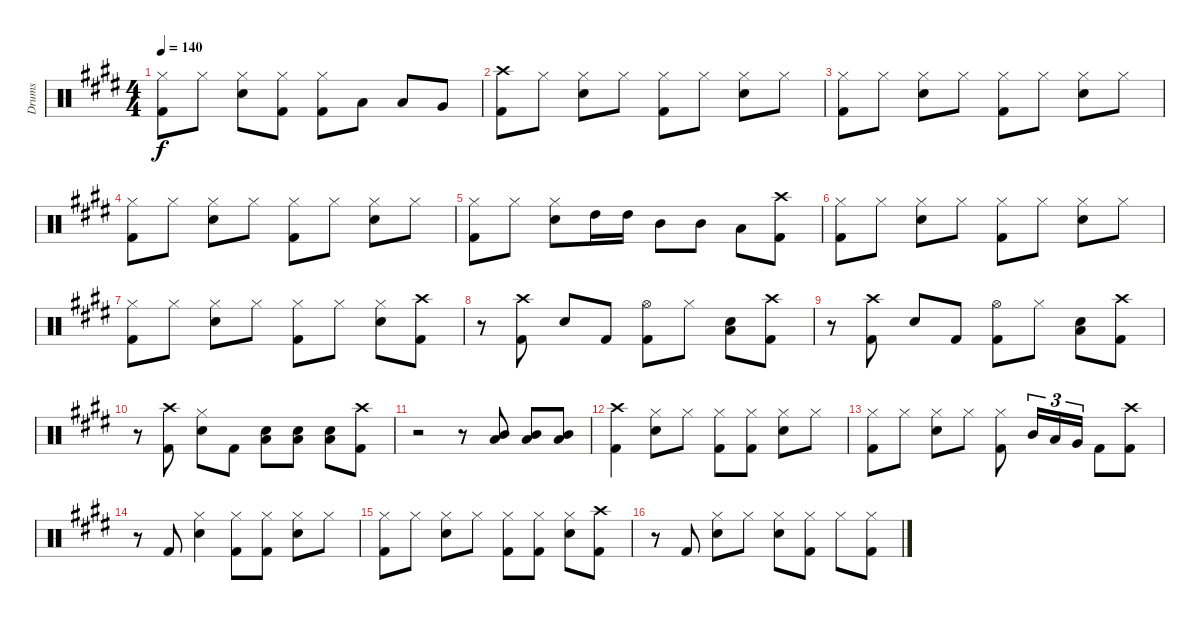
\track ("Drums" "Drums") {instrument percussion}
\staff {score}
\articulation defaults
\ts (4 4)
\tempo 140
\clef neutral
\ks e
("Hi-Hat (closed)" "Kick (hit) 2").8{dy f} "Hi-Hat (closed)".8 ("Hi-Hat (closed)" "Electric Snare (hit)").8 ("Hi-Hat (closed)" "Kick (hit) 2").8 ("Hi-Hat (closed)" "Kick (hit) 2").8 "Low Tom (hit)".8 "Low Tom (hit)".8 "Very Low Tom (hit)".8 |
("Crash high (hit)" "Kick (hit) 2").8 "Hi-Hat (closed)".8 ("Hi-Hat (closed)" "Electric Snare (hit)").8 "Hi-Hat (closed)".8 ("Hi-Hat (closed)" "Kick (hit) 2").8 "Hi-Hat (closed)".8 ("Hi-Hat (closed)" "Electric Snare (hit)").8 "Hi-Hat (closed)".8 |
("Hi-Hat (closed)" "Kick (hit) 2").8 "Hi-Hat (closed)".8 ("Hi-Hat (closed)" "Electric Snare (hit)").8 "Hi-Hat (closed)".8 ("Hi-Hat (closed)" "Kick (hit) 2").8 "Hi-Hat (closed)".8 ("Hi-Hat (closed)" "Electric Snare (hit)").8 "Hi-Hat (closed)".8 |
("Hi-Hat (closed)" "Kick (hit) 2").8 "Hi-Hat (closed)".8 ("Hi-Hat (closed)" "Electric Snare (hit)").8 "Hi-Hat (closed)".8 ("Hi-Hat (closed)" "Kick (hit) 2").8 "Hi-Hat (closed)".8 ("Hi-Hat (closed)" "Electric Snare (hit)").8 "Hi-Hat (closed)".8 |
("Hi-Hat (closed)" "Kick (hit) 2").8 "Hi-Hat (closed)".8 ("Hi-Hat (closed)" "Electric Snare (hit)").8 "High Tom (hit)".16 "High Tom (hit)".16 "Mid Tom (hit)".8 "Mid Tom (hit)".8 "Low Tom (hit)".8 ("Crash high (hit)" "Kick (hit) 2").8 |
("Hi-Hat (closed)" "Kick (hit) 2").8 "Hi-Hat (closed)".8 ("Hi-Hat (closed)" "Electric Snare (hit)").8 "Hi-Hat (closed)".8 ("Hi-Hat (closed)" "Kick (hit) 2").8 "Hi-Hat (closed)".8 ("Hi-Hat (closed)" "Electric Snare (hit)").8 "Hi-Hat (closed)".8 |
("Hi-Hat (closed)" "Kick (hit) 2").8 "Hi-Hat (closed)".8 ("Hi-Hat (closed)" "Electric Snare (hit)").8 "Hi-Hat (closed)".8 ("Hi-Hat (closed)" "Kick (hit) 2").8 "Hi-Hat (closed)".8 ("Hi-Hat (closed)" "Electric Snare (hit)").8 ("Crash high (hit)" "Kick (hit) 2").8 |
r.8 ("Crash high (hit)" "Kick (hit) 2").8 "Electric Snare (hit)".8 "Kick (hit) 2".8 ("Hi-Hat (open)" "Kick (hit) 2").8 "Hi-Hat (closed)".8 ("Electric Snare (hit)" "Low Tom (hit)").8 ("Crash high (hit)" "Kick (hit) 2").8 |
r.8 ("Crash high (hit)" "Kick (hit) 2").8 "Electric Snare (hit)".8 "Kick (hit) 2".8 ("Hi-Hat (open)" "Kick (hit) 2").8 "Hi-Hat (closed)".8 ("Electric Snare (hit)" "Low Tom (hit)").8 ("Crash high (hit)" "Kick (hit) 2").8 |
r.8 ("Crash high (hit)" "Kick (hit) 2").8 ("Hi-Hat (closed)" "Electric Snare (hit)").8 "Kick (hit) 2".8 ("Electric Snare (hit)" "Low Tom (hit)").8 ("Electric Snare (hit)" "Low Tom (hit)").8 ("Electric Snare (hit)" "Low Tom (hit)").8 ("Crash high (hit)" "Kick (hit) 2").8 |
r.2 r.8 ("Mid Tom (hit)" "Low Tom (hit)").8 ("Mid Tom (hit)" "Low Tom (hit)").8 ("Mid Tom (hit)" "Low Tom (hit)").8 |
("Crash high (hit)" "Kick (hit) 2").4 ("Hi-Hat (closed)" "Electric Snare (hit)").8 "Hi-Hat (closed)".8 ("Hi-Hat (closed)" "Kick (hit) 2").8 ("Hi-Hat (closed)" "Kick (hit) 2").8 ("Hi-Hat (closed)" "Electric Snare (hit)").8 "Hi-Hat (closed)".8 |
("Hi-Hat (closed)" "Kick (hit) 2").8 "Hi-Hat (closed)".8 ("Hi-Hat (closed)" "Electric Snare (hit)").8 "Hi-Hat (closed)".8 ("Hi-Hat (closed)" "Kick (hit) 2").8 "Mid Tom (hit)".16{tu (3 2)} "Low Tom (hit)".16{tu (3 2)} "Very Low Tom (hit)".16{tu (3 2)} "Kick (hit) 2".8 ("Crash high (hit)" "Kick (hit) 2").8 |
r.8 "Kick (hit) 2".8 ("Hi-Hat (closed)" "Electric Snare (hit)").4 ("Hi-Hat (closed)" "Kick (hit) 2").8 ("Hi-Hat (closed)" "Kick (hit) 2").8 ("Hi-Hat (closed)" "Electric Snare (hit)").8 "Hi-Hat (closed)".8 |
("Hi-Hat (closed)" "Kick (hit) 2").8 "Hi-Hat (closed)".8 ("Hi-Hat (closed)" "Electric Snare (hit)").8 "Hi-Hat (closed)".8 ("Hi-Hat (closed)" "Kick (hit) 2").8 ("Hi-Hat (closed)" "Kick (hit) 2").8 ("Hi-Hat (closed)" "Electric Snare (hit)").8 ("Crash high (hit)" "Kick (hit) 2").8 |
r.8 "Kick (hit) 2".8 ("Hi-Hat (closed)" "Electric Snare (hit)").8 "Hi-Hat (closed)".8 ("Hi-Hat (closed)" "Electric Snare (hit)").8 ("Hi-Hat (closed)" "Kick (hit) 2").8 "Hi-Hat (closed)".8 ("Hi-Hat (closed)" "Kick (hit) 2").8
